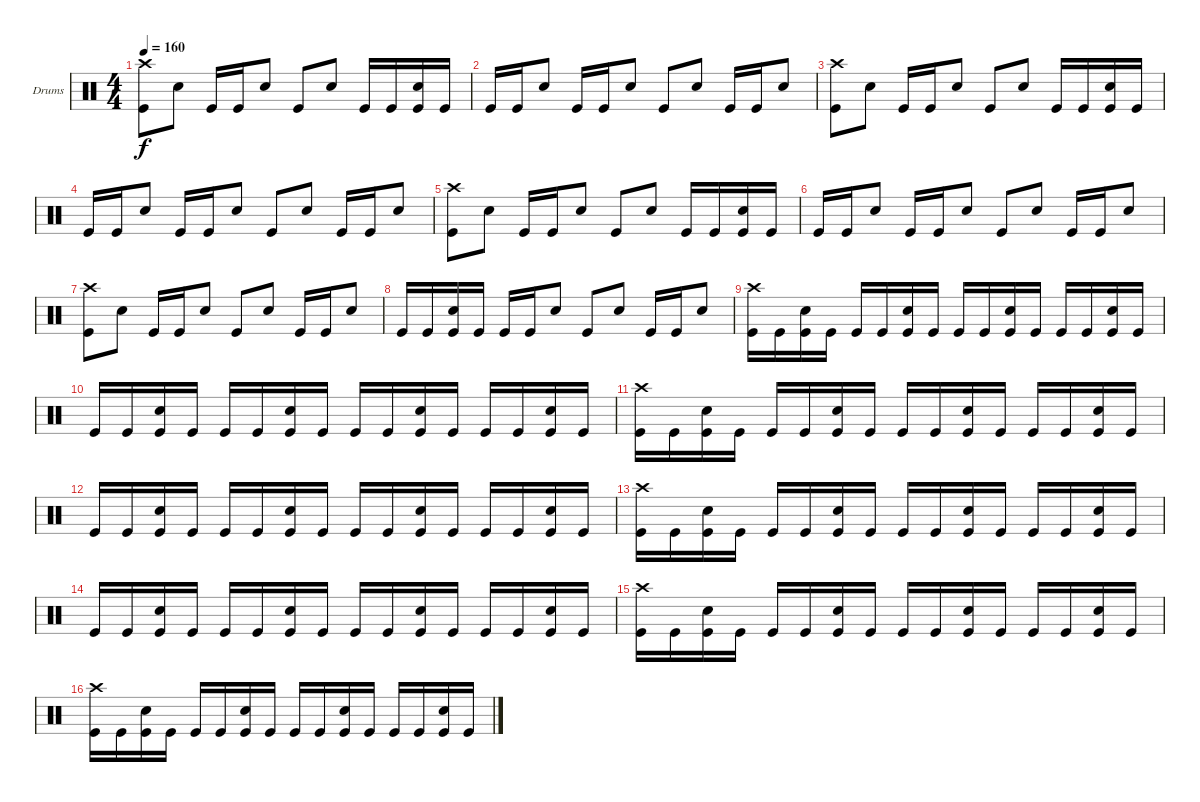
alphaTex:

\defaultSystemsLayout 4
\bracketExtendMode groupsimilarinstruments
\firstSystemTrackNameOrientation horizontal
\otherSystemsTrackNameOrientation horizontal
\track ("Drumkit" "Drums") {instrument percussion}
\staff {score}
\articulation defaults
\ts (4 4)
\tempo 160
\clef neutral
\ks c
("Kick (hit)" "Crash high (hit)").8{dy f} "Snare (hit) 2".8 "Kick (hit)".16 "Kick (hit)".16 "Snare (hit) 2".8 "Kick (hit)".8 "Snare (hit) 2".8 "Kick (hit)".16 "Kick (hit)".16 ("Snare (hit) 2" "Kick (hit)").16 "Kick (hit)".16 |
"Kick (hit)".16 "Kick (hit)".16 "Snare (hit) 2".8 "Kick (hit)".16 "Kick (hit)".16 "Snare (hit) 2".8 "Kick (hit)".8 "Snare (hit) 2".8 "Kick (hit)".16 "Kick (hit)".16 "Snare (hit) 2".8 |
("Kick (hit)" "Crash high (hit)").8 "Snare (hit) 2".8 "Kick (hit)".16 "Kick (hit)".16 "Snare (hit) 2".8 "Kick (hit)".8 "Snare (hit) 2".8 "Kick (hit)".16 "Kick (hit)".16 ("Snare (hit) 2" "Kick (hit)").16 "Kick (hit)".16 |
"Kick (hit)".16 "Kick (hit)".16 "Snare (hit) 2".8 "Kick (hit)".16 "Kick (hit)".16 "Snare (hit) 2".8 "Kick (hit)".8 "Snare (hit) 2".8 "Kick (hit)".16 "Kick (hit)".16 "Snare (hit) 2".8 |
("Kick (hit)" "Crash high (hit)").8 "Snare (hit) 2".8 "Kick (hit)".16 "Kick (hit)".16 "Snare (hit) 2".8 "Kick (hit)".8 "Snare (hit) 2".8 "Kick (hit)".16 "Kick (hit)".16 ("Snare (hit) 2" "Kick (hit)").16 "Kick (hit)".16 |
"Kick (hit)".16 "Kick (hit)".16 "Snare (hit) 2".8 "Kick (hit)".16 "Kick (hit)".16 "Snare (hit) 2".8 "Kick (hit)".8 "Snare (hit) 2".8 "Kick (hit)".16 "Kick (hit)".16 "Snare (hit) 2".8 |
("Kick (hit)" "Crash high (hit)").8 "Snare (hit) 2".8 "Kick (hit)".16 "Kick (hit)".16 "Snare (hit) 2".8 "Kick (hit)".8 "Snare (hit) 2".8 "Kick (hit)".16 "Kick (hit)".16 "Snare (hit) 2".8 |
"Kick (hit)".16 "Kick (hit)".16 ("Kick (hit)" "Snare (hit) 2").16 "Kick (hit)".16 "Kick (hit)".16 "Kick (hit)".16 "Snare (hit) 2".8 "Kick (hit)".8 "Snare (hit) 2".8 "Kick (hit)".16 "Kick (hit)".16 "Snare (hit) 2".8 |
("Kick (hit)" "Crash high (hit)").16 "Kick (hit)".16 ("Kick (hit)" "Snare (hit) 2").16 "Kick (hit)".16 "Kick (hit)".16 "Kick (hit)".16 ("Kick (hit)" "Snare (hit) 2").16 "Kick (hit)".16 "Kick (hit)".16 "Kick (hit)".16 ("Kick (hit)" "Snare (hit) 2").16 "Kick (hit)".16 "Kick (hit)".16 "Kick (hit)".16 ("Kick (hit)" "Snare (hit) 2").16 "Kick (hit)".16 |
"Kick (hit)".16 "Kick (hit)".16 ("Kick (hit)" "Snare (hit) 2").16 "Kick (hit)".16 "Kick (hit)".16 "Kick (hit)".16 ("Kick (hit)" "Snare (hit) 2").16 "Kick (hit)".16 "Kick (hit)".16 "Kick (hit)".16 ("Kick (hit)" "Snare (hit) 2").16 "Kick (hit)".16 "Kick (hit)".16 "Kick (hit)".16 ("Kick (hit)" "Snare (hit) 2").16 "Kick (hit)".16 |
("Kick (hit)" "Crash high (hit)").16 "Kick (hit)".16 ("Kick (hit)" "Snare (hit) 2").16 "Kick (hit)".16 "Kick (hit)".16 "Kick (hit)".16 ("Kick (hit)" "Snare (hit) 2").16 "Kick (hit)".16 "Kick (hit)".16 "Kick (hit)".16 ("Kick (hit)" "Snare (hit) 2").16 "Kick (hit)".16 "Kick (hit)".16 "Kick (hit)".16 ("Kick (hit)" "Snare (hit) 2").16 "Kick (hit)".16 |
"Kick (hit)".16 "Kick (hit)".16 ("Kick (hit)" "Snare (hit) 2").16 "Kick (hit)".16 "Kick (hit)".16 "Kick (hit)".16 ("Kick (hit)" "Snare (hit) 2").16 "Kick (hit)".16 "Kick (hit)".16 "Kick (hit)".16 ("Kick (hit)" "Snare (hit) 2").16 "Kick (hit)".16 "Kick (hit)".16 "Kick (hit)".16 ("Kick (hit)" "Snare (hit) 2").16 "Kick (hit)".16 |
("Kick (hit)" "Crash high (hit)").16 "Kick (hit)".16 ("Kick (hit)" "Snare (hit) 2").16 "Kick (hit)".16 "Kick (hit)".16 "Kick (hit)".16 ("Kick (hit)" "Snare (hit) 2").16 "Kick (hit)".16 "Kick (hit)".16 "Kick (hit)".16 ("Kick (hit)" "Snare (hit) 2").16 "Kick (hit)".16 "Kick (hit)".16 "Kick (hit)".16 ("Kick (hit)" "Snare (hit) 2").16 "Kick (hit)".16 |
"Kick (hit)".16 "Kick (hit)".16 ("Kick (hit)" "Snare (hit) 2").16 "Kick (hit)".16 "Kick (hit)".16 "Kick (hit)".16 ("Kick (hit)" "Snare (hit) 2").16 "Kick (hit)".16 "Kick (hit)".16 "Kick (hit)".16 ("Kick (hit)" "Snare (hit) 2").16 "Kick (hit)".16 "Kick (hit)".16 "Kick (hit)".16 ("Kick (hit)" "Snare (hit) 2").16 "Kick (hit)".16 |
("Kick (hit)" "Crash high (hit)").16 "Kick (hit)".16 ("Kick (hit)" "Snare (hit) 2").16 "Kick (hit)".16 "Kick (hit)".16 "Kick (hit)".16 ("Kick (hit)" "Snare (hit) 2").16 "Kick (hit)".16 "Kick (hit)".16 "Kick (hit)".16 ("Kick (hit)" "Snare (hit) 2").16 "Kick (hit)".16 "Kick (hit)".16 "Kick (hit)".16 ("Kick (hit)" "Snare (hit) 2").16 "Kick (hit)".16 |
("Kick (hit)" "Crash high (hit)").16 "Kick (hit)".16 ("Kick (hit)" "Snare (hit) 2").16 "Kick (hit)".16 "Kick (hit)".16 "Kick (hit)".16 ("Kick (hit)" "Snare (hit) 2").16 "Kick (hit)".16 "Kick (hit)".16 "Kick (hit)".16 ("Kick (hit)" "Snare (hit) 2").16 "Kick (hit)".16 "Kick (hit)".16 "Kick (hit)".16 ("Kick (hit)" "Snare (hit) 2").16 "Kick (hit)".16
